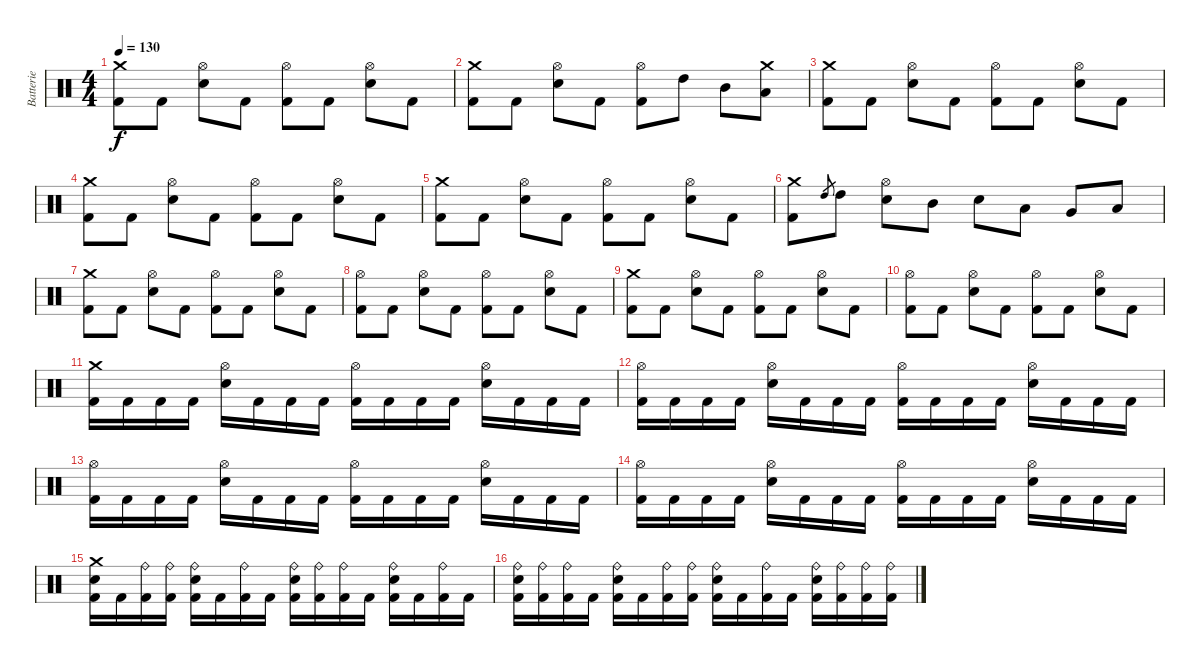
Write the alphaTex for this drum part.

\track ("Batterie" "Batterie") {instrument percussion}
\staff {score}
\articulation defaults
\ts (4 4)
\tempo 130
\clef neutral
\ks c
("Crash medium (hit)" "Kick (hit) 2").8{dy f} "Kick (hit) 2".8 ("Hi-Hat (open)" "Snare (hit) 2").8 "Kick (hit) 2".8 ("Hi-Hat (open)" "Kick (hit) 2").8 "Kick (hit) 2".8 ("Hi-Hat (open)" "Snare (hit) 2").8 "Kick (hit) 2".8 |
("Crash medium (hit)" "Kick (hit) 2").8 "Kick (hit) 2".8 ("Hi-Hat (open)" "Snare (hit) 2").8 "Kick (hit) 2".8 ("Hi-Hat (open)" "Kick (hit) 2").8 "High Tom (hit)".8 "Mid Tom (hit)".8 ("Crash medium (hit)" "Low Tom (hit)").8 |
("Crash medium (hit)" "Kick (hit) 2").8 "Kick (hit) 2".8 ("Hi-Hat (open)" "Snare (hit) 2").8 "Kick (hit) 2".8 ("Hi-Hat (open)" "Kick (hit) 2").8 "Kick (hit) 2".8 ("Hi-Hat (open)" "Snare (hit) 2").8 "Kick (hit) 2".8 |
("Crash medium (hit)" "Kick (hit) 2").8 "Kick (hit) 2".8 ("Hi-Hat (open)" "Snare (hit) 2").8 "Kick (hit) 2".8 ("Hi-Hat (open)" "Kick (hit) 2").8 "Kick (hit) 2".8 ("Hi-Hat (open)" "Snare (hit) 2").8 "Kick (hit) 2".8 |
("Crash medium (hit)" "Kick (hit) 2").8 "Kick (hit) 2".8 ("Hi-Hat (open)" "Snare (hit) 2").8 "Kick (hit) 2".8 ("Hi-Hat (open)" "Kick (hit) 2").8 "Kick (hit) 2".8 ("Hi-Hat (open)" "Snare (hit) 2").8 "Kick (hit) 2".8 |
("Crash medium (hit)" "Kick (hit) 2").8 "High Tom (hit)".8{gr} "High Tom (hit)".8 ("Hi-Hat (open)" "Snare (hit) 2").8 "Mid Tom (hit)".8 "Snare (hit) 2".8 "Low Tom (hit)".8 "Very Low Tom (hit)".8 "Low Floor Tom (hit)".8 |
("Crash medium (hit)" "Kick (hit) 2").8 "Kick (hit) 2".8 ("Hi-Hat (open)" "Snare (hit) 2").8 "Kick (hit) 2".8 ("Hi-Hat (open)" "Kick (hit) 2").8 "Kick (hit) 2".8 ("Hi-Hat (open)" "Snare (hit) 2").8 "Kick (hit) 2".8 |
("Hi-Hat (open)" "Kick (hit) 2").8 "Kick (hit) 2".8 ("Hi-Hat (open)" "Snare (hit) 2").8 "Kick (hit) 2".8 ("Hi-Hat (open)" "Kick (hit) 2").8 "Kick (hit) 2".8 ("Hi-Hat (open)" "Snare (hit) 2").8 "Kick (hit) 2".8 |
("Crash medium (hit)" "Kick (hit) 2").8 "Kick (hit) 2".8 ("Hi-Hat (open)" "Snare (hit) 2").8 "Kick (hit) 2".8 ("Hi-Hat (open)" "Kick (hit) 2").8 "Kick (hit) 2".8 ("Hi-Hat (open)" "Snare (hit) 2").8 "Kick (hit) 2".8 |
("Hi-Hat (open)" "Kick (hit) 2").8 "Kick (hit) 2".8 ("Hi-Hat (open)" "Snare (hit) 2").8 "Kick (hit) 2".8 ("Hi-Hat (open)" "Kick (hit) 2").8 "Kick (hit) 2".8 ("Hi-Hat (open)" "Snare (hit) 2").8 "Kick (hit) 2".8 |
("Crash medium (hit)" "Kick (hit) 2").16 "Kick (hit) 2".16 "Kick (hit) 2".16 "Kick (hit) 2".16 ("Hi-Hat (open)" "Snare (hit) 2").16 "Kick (hit) 2".16 "Kick (hit) 2".16 "Kick (hit) 2".16 ("Hi-Hat (open)" "Kick (hit) 2").16 "Kick (hit) 2".16 "Kick (hit) 2".16 "Kick (hit) 2".16 ("Hi-Hat (open)" "Snare (hit) 2").16 "Kick (hit) 2".16 "Kick (hit) 2".16 "Kick (hit) 2".16 |
("Hi-Hat (open)" "Kick (hit) 2").16 "Kick (hit) 2".16 "Kick (hit) 2".16 "Kick (hit) 2".16 ("Hi-Hat (open)" "Snare (hit) 2").16 "Kick (hit) 2".16 "Kick (hit) 2".16 "Kick (hit) 2".16 ("Hi-Hat (open)" "Kick (hit) 2").16 "Kick (hit) 2".16 "Kick (hit) 2".16 "Kick (hit) 2".16 ("Hi-Hat (open)" "Snare (hit) 2").16 "Kick (hit) 2".16 "Kick (hit) 2".16 "Kick (hit) 2".16 |
("Hi-Hat (open)" "Kick (hit) 2").16 "Kick (hit) 2".16 "Kick (hit) 2".16 "Kick (hit) 2".16 ("Hi-Hat (open)" "Snare (hit) 2").16 "Kick (hit) 2".16 "Kick (hit) 2".16 "Kick (hit) 2".16 ("Hi-Hat (open)" "Kick (hit) 2").16 "Kick (hit) 2".16 "Kick (hit) 2".16 "Kick (hit) 2".16 ("Hi-Hat (open)" "Snare (hit) 2").16 "Kick (hit) 2".16 "Kick (hit) 2".16 "Kick (hit) 2".16 |
("Hi-Hat (open)" "Kick (hit) 2").16 "Kick (hit) 2".16 "Kick (hit) 2".16 "Kick (hit) 2".16 ("Hi-Hat (open)" "Snare (hit) 2").16 "Kick (hit) 2".16 "Kick (hit) 2".16 "Kick (hit) 2".16 ("Hi-Hat (open)" "Kick (hit) 2").16 "Kick (hit) 2".16 "Kick (hit) 2".16 "Kick (hit) 2".16 ("Hi-Hat (open)" "Snare (hit) 2").16 "Kick (hit) 2".16 "Kick (hit) 2".16 "Kick (hit) 2".16 |
("Crash medium (hit)" "Snare (hit) 2" "Kick (hit) 2").16 "Kick (hit) 2".16 ("Ride (bell)" "Kick (hit) 2").16 ("Ride (bell)" "Kick (hit) 2").16 ("Ride (bell)" "Snare (hit) 2" "Kick (hit) 2").16 "Kick (hit) 2".16 ("Ride (bell)" "Kick (hit) 2").16 "Kick (hit) 2".16 ("Ride (bell)" "Snare (hit) 2" "Kick (hit) 2").16 ("Ride (bell)" "Kick (hit) 2").16 ("Ride (bell)" "Kick (hit) 2").16 "Kick (hit) 2".16 ("Ride (bell)" "Snare (hit) 2" "Kick (hit) 2").16 "Kick (hit) 2".16 ("Ride (bell)" "Kick (hit) 2").16 "Kick (hit) 2".16 |
("Ride (bell)" "Snare (hit) 2" "Kick (hit) 2").16 ("Ride (bell)" "Kick (hit) 2").16 ("Ride (bell)" "Kick (hit) 2").16 "Kick (hit) 2".16 ("Ride (bell)" "Snare (hit) 2" "Kick (hit) 2").16 "Kick (hit) 2".16 ("Ride (bell)" "Kick (hit) 2").16 ("Ride (bell)" "Kick (hit) 2").16 ("Ride (bell)" "Snare (hit) 2" "Kick (hit) 2").16 "Kick (hit) 2".16 ("Ride (bell)" "Kick (hit) 2").16 "Kick (hit) 2".16 ("Ride (bell)" "Snare (hit) 2" "Kick (hit) 2").16 ("Ride (bell)" "Kick (hit) 2").16 ("Ride (bell)" "Kick (hit) 2").16 ("Ride (bell)" "Kick (hit) 2").16
